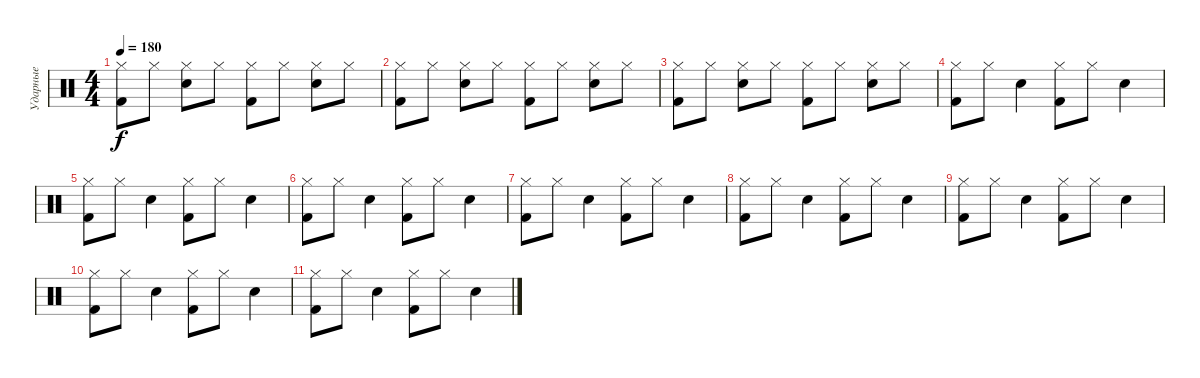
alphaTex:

\track ("Ударные" "Ударные") {instrument percussion}
\staff {score}
\articulation defaults
\ts (4 4)
\tempo 180
\clef neutral
\ks c
("Hi-Hat (closed)" "Kick (hit) 2").8{dy f} "Hi-Hat (closed)".8 ("Hi-Hat (closed)" "Snare (hit) 2").8 "Hi-Hat (closed)".8 ("Hi-Hat (closed)" "Kick (hit) 2").8 "Hi-Hat (closed)".8 ("Hi-Hat (closed)" "Snare (hit) 2").8 "Hi-Hat (closed)".8 |
("Hi-Hat (closed)" "Kick (hit) 2").8 "Hi-Hat (closed)".8 ("Hi-Hat (closed)" "Snare (hit) 2").8 "Hi-Hat (closed)".8 ("Hi-Hat (closed)" "Kick (hit) 2").8 "Hi-Hat (closed)".8 ("Hi-Hat (closed)" "Snare (hit) 2").8 "Hi-Hat (closed)".8 |
("Hi-Hat (closed)" "Kick (hit) 2").8 "Hi-Hat (closed)".8 ("Hi-Hat (closed)" "Snare (hit) 2").8 "Hi-Hat (closed)".8 ("Hi-Hat (closed)" "Kick (hit) 2").8 "Hi-Hat (closed)".8 ("Hi-Hat (closed)" "Snare (hit) 2").8 "Hi-Hat (closed)".8 |
("Hi-Hat (closed)" "Kick (hit) 2").8 "Hi-Hat (closed)".8 "Snare (hit) 2".4 ("Hi-Hat (closed)" "Kick (hit) 2").8 "Hi-Hat (closed)".8 "Snare (hit) 2".4 |
("Hi-Hat (closed)" "Kick (hit) 2").8 "Hi-Hat (closed)".8 "Snare (hit) 2".4 ("Hi-Hat (closed)" "Kick (hit) 2").8 "Hi-Hat (closed)".8 "Snare (hit) 2".4 |
("Hi-Hat (closed)" "Kick (hit) 2").8 "Hi-Hat (closed)".8 "Snare (hit) 2".4 ("Hi-Hat (closed)" "Kick (hit) 2").8 "Hi-Hat (closed)".8 "Snare (hit) 2".4 |
("Hi-Hat (closed)" "Kick (hit) 2").8 "Hi-Hat (closed)".8 "Snare (hit) 2".4 ("Hi-Hat (closed)" "Kick (hit) 2").8 "Hi-Hat (closed)".8 "Snare (hit) 2".4 |
("Hi-Hat (closed)" "Kick (hit) 2").8 "Hi-Hat (closed)".8 "Snare (hit) 2".4 ("Hi-Hat (closed)" "Kick (hit) 2").8 "Hi-Hat (closed)".8 "Snare (hit) 2".4 |
("Hi-Hat (closed)" "Kick (hit) 2").8 "Hi-Hat (closed)".8 "Snare (hit) 2".4 ("Hi-Hat (closed)" "Kick (hit) 2").8 "Hi-Hat (closed)".8 "Snare (hit) 2".4 |
("Hi-Hat (closed)" "Kick (hit) 2").8 "Hi-Hat (closed)".8 "Snare (hit) 2".4 ("Hi-Hat (closed)" "Kick (hit) 2").8 "Hi-Hat (closed)".8 "Snare (hit) 2".4 |
("Hi-Hat (closed)" "Kick (hit) 2").8 "Hi-Hat (closed)".8 "Snare (hit) 2".4 ("Hi-Hat (closed)" "Kick (hit) 2").8 "Hi-Hat (closed)".8 "Snare (hit) 2".4
